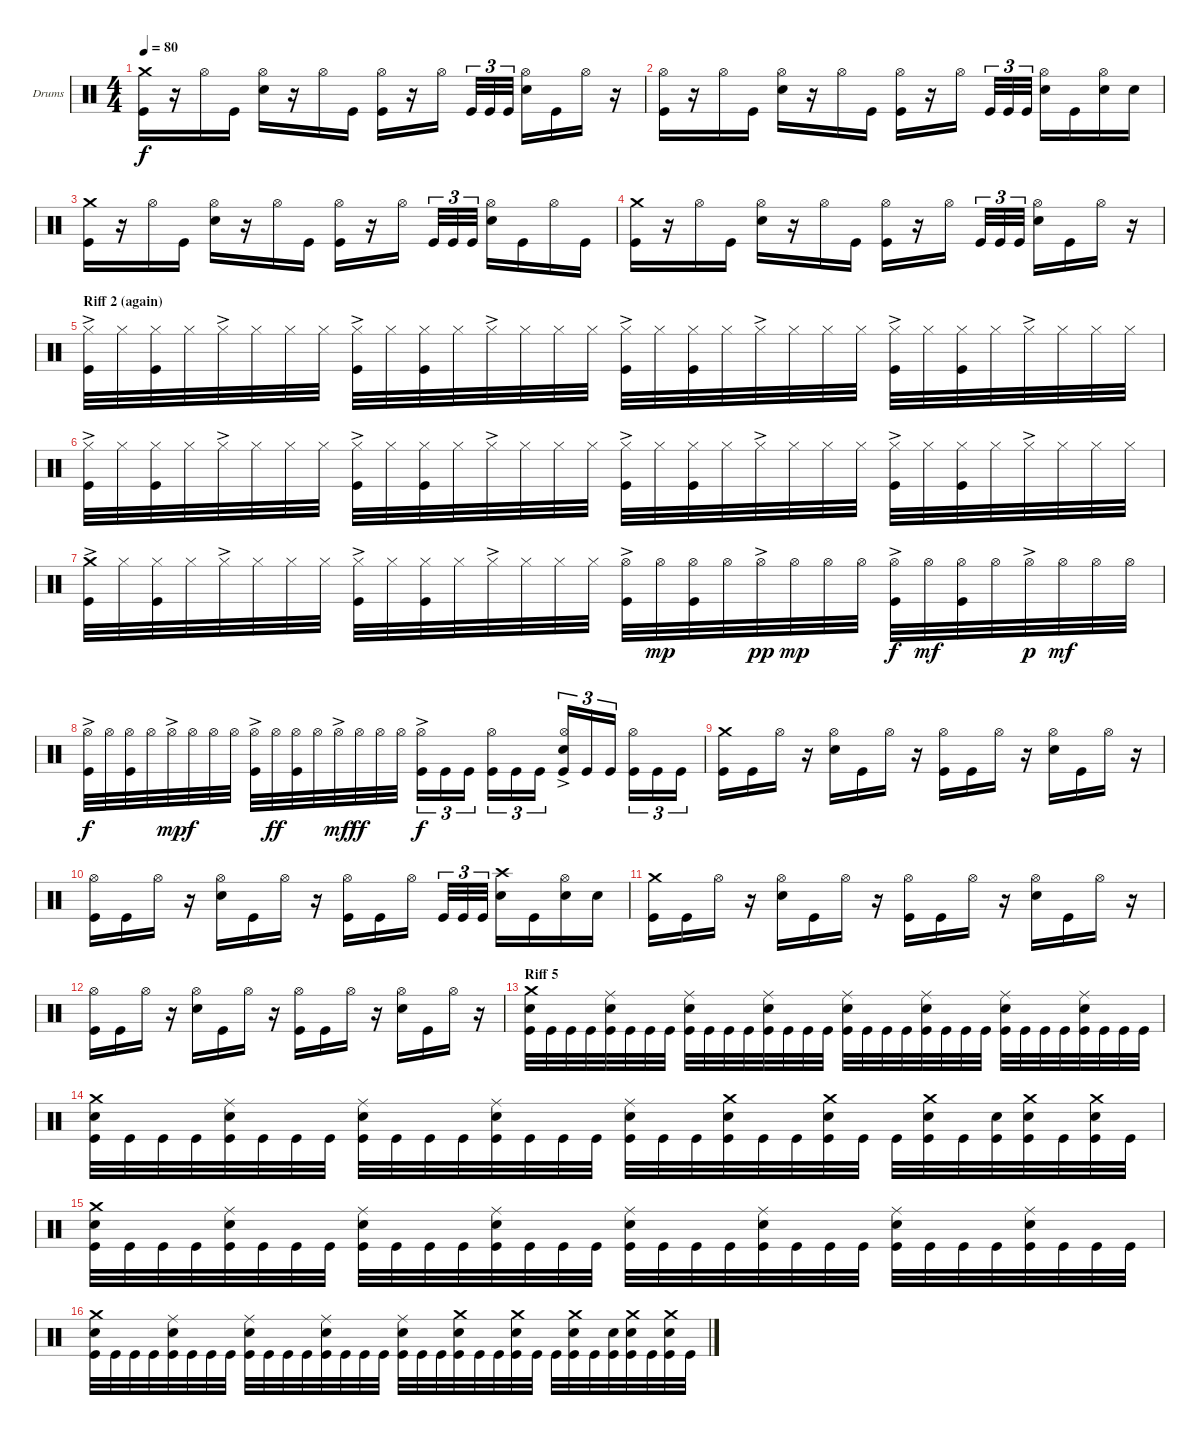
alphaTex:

\bracketExtendMode groupsimilarinstruments
\firstSystemTrackNameOrientation horizontal
\otherSystemsTrackNameOrientation horizontal
\track ("Drumkit" "Drums") {instrument percussion}
\staff {score}
\articulation defaults
\ts (4 4)
\tempo 80
\clef neutral
\ks c
("Crash medium (hit)" "Kick (hit)").16{dy f} r.16 "Hi-Hat (open)".16 "Kick (hit)".16 ("Hi-Hat (open)" "Snare (hit) 2").16 r.16 "Hi-Hat (open)".16 "Kick (hit)".16 ("Hi-Hat (open)" "Kick (hit)").16 r.16 "Hi-Hat (open)".16 "Kick (hit)".32{tu (3 2)} "Kick (hit)".32{tu (3 2)} "Kick (hit)".32{tu (3 2)} ("Hi-Hat (open)" "Snare (hit) 2").16 "Kick (hit)".16 "Hi-Hat (open)".16 r.16 |
("Hi-Hat (open)" "Kick (hit)").16 r.16 "Hi-Hat (open)".16 "Kick (hit)".16 ("Hi-Hat (open)" "Snare (hit) 2").16 r.16 "Hi-Hat (open)".16 "Kick (hit)".16 ("Hi-Hat (open)" "Kick (hit)").16 r.16 "Hi-Hat (open)".16 "Kick (hit)".32{tu (3 2)} "Kick (hit)".32{tu (3 2)} "Kick (hit)".32{tu (3 2)} ("Hi-Hat (open)" "Snare (hit) 2").16 "Kick (hit)".16 ("Hi-Hat (open)" "Snare (hit) 2").16 "Snare (hit) 2".16 |
("Crash medium (hit)" "Kick (hit)").16 r.16 "Hi-Hat (open)".16 "Kick (hit)".16 ("Hi-Hat (open)" "Snare (hit) 2").16 r.16 "Hi-Hat (open)".16 "Kick (hit)".16 ("Hi-Hat (open)" "Kick (hit)").16 r.16 "Hi-Hat (open)".16 "Kick (hit)".32{tu (3 2)} "Kick (hit)".32{tu (3 2)} "Kick (hit)".32{tu (3 2)} ("Hi-Hat (open)" "Snare (hit) 2").16 "Kick (hit)".16 "Hi-Hat (open)".16 "Kick (hit)".16 |
("Crash medium (hit)" "Kick (hit)").16 r.16 "Hi-Hat (open)".16 "Kick (hit)".16 ("Hi-Hat (open)" "Snare (hit) 2").16 r.16 "Hi-Hat (open)".16 "Kick (hit)".16 ("Hi-Hat (open)" "Kick (hit)").16 r.16 "Hi-Hat (open)".16 "Kick (hit)".32{tu (3 2)} "Kick (hit)".32{tu (3 2)} "Kick (hit)".32{tu (3 2)} ("Hi-Hat (open)" "Snare (hit) 2").16 "Kick (hit)".16 "Hi-Hat (open)".16 r.16 |
\section ("" "Riff 2 (again)")
("Hi-Hat (closed)"{ac} "Kick (hit)").32 "Hi-Hat (closed)".32 ("Hi-Hat (closed)" "Kick (hit)").32 "Hi-Hat (closed)".32 "Hi-Hat (closed)"{ac}.32 "Hi-Hat (closed)".32 "Hi-Hat (closed)".32 "Hi-Hat (closed)".32 ("Hi-Hat (closed)"{ac} "Kick (hit)").32 "Hi-Hat (closed)".32 ("Hi-Hat (closed)" "Kick (hit)").32 "Hi-Hat (closed)".32 "Hi-Hat (closed)"{ac}.32 "Hi-Hat (closed)".32 "Hi-Hat (closed)".32 "Hi-Hat (closed)".32 ("Hi-Hat (closed)"{ac} "Kick (hit)").32 "Hi-Hat (closed)".32 ("Hi-Hat (closed)" "Kick (hit)").32 "Hi-Hat (closed)".32 "Hi-Hat (closed)"{ac}.32 "Hi-Hat (closed)".32 "Hi-Hat (closed)".32 "Hi-Hat (closed)".32 ("Hi-Hat (closed)"{ac} "Kick (hit)").32 "Hi-Hat (closed)".32 ("Hi-Hat (closed)" "Kick (hit)").32 "Hi-Hat (closed)".32 "Hi-Hat (closed)"{ac}.32 "Hi-Hat (closed)".32 "Hi-Hat (closed)".32 "Hi-Hat (closed)".32 |
("Hi-Hat (closed)"{ac} "Kick (hit)").32 "Hi-Hat (closed)".32 ("Hi-Hat (closed)" "Kick (hit)").32 "Hi-Hat (closed)".32 "Hi-Hat (closed)"{ac}.32 "Hi-Hat (closed)".32 "Hi-Hat (closed)".32 "Hi-Hat (closed)".32 ("Hi-Hat (closed)"{ac} "Kick (hit)").32 "Hi-Hat (closed)".32 ("Hi-Hat (closed)" "Kick (hit)").32 "Hi-Hat (closed)".32 "Hi-Hat (closed)"{ac}.32 "Hi-Hat (closed)".32 "Hi-Hat (closed)".32 "Hi-Hat (closed)".32 ("Hi-Hat (closed)"{ac} "Kick (hit)").32 "Hi-Hat (closed)".32 ("Hi-Hat (closed)" "Kick (hit)").32 "Hi-Hat (closed)".32 "Hi-Hat (closed)"{ac}.32 "Hi-Hat (closed)".32 "Hi-Hat (closed)".32 "Hi-Hat (closed)".32 ("Hi-Hat (closed)"{ac} "Kick (hit)").32 "Hi-Hat (closed)".32 ("Hi-Hat (closed)" "Kick (hit)").32 "Hi-Hat (closed)".32 "Hi-Hat (closed)"{ac}.32 "Hi-Hat (closed)".32 "Hi-Hat (closed)".32 "Hi-Hat (closed)".32 |
("Crash medium (hit)"{ac} "Kick (hit)").32 "Hi-Hat (closed)".32 ("Hi-Hat (closed)" "Kick (hit)").32 "Hi-Hat (closed)".32 "Hi-Hat (closed)"{ac}.32 "Hi-Hat (closed)".32 "Hi-Hat (closed)".32 "Hi-Hat (closed)".32 ("Hi-Hat (closed)"{ac} "Kick (hit)").32 "Hi-Hat (closed)".32 ("Hi-Hat (closed)" "Kick (hit)").32 "Hi-Hat (closed)".32 "Hi-Hat (closed)"{ac}.32 "Hi-Hat (closed)".32 "Hi-Hat (closed)".32 "Hi-Hat (closed)".32 ("Hi-Hat (open)"{ac} "Kick (hit)").32 "Hi-Hat (open)".32{dy mp} ("Hi-Hat (open)" "Kick (hit)").32 "Hi-Hat (open)".32 "Hi-Hat (open)"{ac}.32{dy pp} "Hi-Hat (open)".32{dy mp} "Hi-Hat (open)".32 "Hi-Hat (open)".32 ("Hi-Hat (open)"{ac} "Kick (hit)").32{dy f} "Hi-Hat (open)".32{dy mf} ("Hi-Hat (open)" "Kick (hit)").32 "Hi-Hat (open)".32 "Hi-Hat (open)"{ac}.32{dy p} "Hi-Hat (open)".32{dy mf} "Hi-Hat (open)".32 "Hi-Hat (open)".32 |
("Hi-Hat (open)"{ac} "Kick (hit)").32{dy f} "Hi-Hat (open)".32 ("Hi-Hat (open)" "Kick (hit)").32 "Hi-Hat (open)".32 "Hi-Hat (open)"{ac}.32{dy mp} "Hi-Hat (open)".32{dy f} "Hi-Hat (open)".32 "Hi-Hat (open)".32 ("Hi-Hat (open)"{ac} "Kick (hit)").32 "Hi-Hat (open)".32{dy ff} ("Hi-Hat (open)" "Kick (hit)").32 "Hi-Hat (open)".32 "Hi-Hat (open)"{ac}.32{dy mf} "Hi-Hat (open)".32{dy ff} "Hi-Hat (open)".32 "Hi-Hat (open)".32 ("Hi-Hat (open)"{ac} "Kick (hit)").16{tu (3 2) dy f} "Kick (hit)".16{tu (3 2)} "Kick (hit)".16{tu (3 2)} ("Hi-Hat (open)" "Kick (hit)").16{tu (3 2)} "Kick (hit)".16{tu (3 2)} "Kick (hit)".16{tu (3 2)} ("Hi-Hat (open)"{ac} "Snare (hit) 2" "Kick (hit)").16{tu (3 2)} "Kick (hit)".16{tu (3 2)} "Kick (hit)".16{tu (3 2)} ("Hi-Hat (open)" "Kick (hit)").16{tu (3 2)} "Kick (hit)".16{tu (3 2)} "Kick (hit)".16{tu (3 2)} |
("Crash medium (hit)" "Kick (hit)").16 "Kick (hit)".16 "Hi-Hat (open)".16 r.16 ("Hi-Hat (open)" "Snare (hit) 2").16 "Kick (hit)".16 "Hi-Hat (open)".16 r.16 ("Hi-Hat (open)" "Kick (hit)").16 "Kick (hit)".16 "Hi-Hat (open)".16 r.16 ("Hi-Hat (open)" "Snare (hit) 2").16 "Kick (hit)".16 "Hi-Hat (open)".16 r.16 |
("Hi-Hat (open)" "Kick (hit)").16 "Kick (hit)".16 "Hi-Hat (open)".16 r.16 ("Hi-Hat (open)" "Snare (hit) 2").16 "Kick (hit)".16 "Hi-Hat (open)".16 r.16 ("Hi-Hat (open)" "Kick (hit)").16 "Kick (hit)".16 "Hi-Hat (open)".16 "Kick (hit)".32{tu (3 2)} "Kick (hit)".32{tu (3 2)} "Kick (hit)".32{tu (3 2)} ("Crash high (hit)" "Snare (hit) 2").16 "Kick (hit)".16 ("Hi-Hat (open)" "Snare (hit) 2").16 "Snare (hit) 2".16 |
("Crash medium (hit)" "Kick (hit)").16 "Kick (hit)".16 "Hi-Hat (open)".16 r.16 ("Hi-Hat (open)" "Snare (hit) 2").16 "Kick (hit)".16 "Hi-Hat (open)".16 r.16 ("Hi-Hat (open)" "Kick (hit)").16 "Kick (hit)".16 "Hi-Hat (open)".16 r.16 ("Hi-Hat (open)" "Snare (hit) 2").16 "Kick (hit)".16 "Hi-Hat (open)".16 r.16 |
("Hi-Hat (open)" "Kick (hit)").16 "Kick (hit)".16 "Hi-Hat (open)".16 r.16 ("Hi-Hat (open)" "Snare (hit) 2").16 "Kick (hit)".16 "Hi-Hat (open)".16 r.16 ("Hi-Hat (open)" "Kick (hit)").16 "Kick (hit)".16 "Hi-Hat (open)".16 r.16 ("Hi-Hat (open)" "Snare (hit) 2").16 "Kick (hit)".16 "Hi-Hat (open)".16 r.16 |
\section ("" "Riff 5")
("Crash medium (hit)" "Snare (hit) 2" "Kick (hit)").32 "Kick (hit)".32 "Kick (hit)".32 "Kick (hit)".32 ("Ride (middle)" "Snare (hit) 2" "Kick (hit)").32 "Kick (hit)".32 "Kick (hit)".32 "Kick (hit)".32 ("Ride (middle)" "Snare (hit) 2" "Kick (hit)").32 "Kick (hit)".32 "Kick (hit)".32 "Kick (hit)".32 ("Ride (middle)" "Snare (hit) 2" "Kick (hit)").32 "Kick (hit)".32 "Kick (hit)".32 "Kick (hit)".32 ("Ride (middle)" "Snare (hit) 2" "Kick (hit)").32 "Kick (hit)".32 "Kick (hit)".32 "Kick (hit)".32 ("Ride (middle)" "Snare (hit) 2" "Kick (hit)").32 "Kick (hit)".32 "Kick (hit)".32 "Kick (hit)".32 ("Ride (middle)" "Snare (hit) 2" "Kick (hit)").32 "Kick (hit)".32 "Kick (hit)".32 "Kick (hit)".32 ("Ride (middle)" "Snare (hit) 2" "Kick (hit)").32 "Kick (hit)".32 "Kick (hit)".32 "Kick (hit)".32 |
("Crash medium (hit)" "Snare (hit) 2" "Kick (hit)").32 "Kick (hit)".32 "Kick (hit)".32 "Kick (hit)".32 ("Ride (middle)" "Snare (hit) 2" "Kick (hit)").32 "Kick (hit)".32 "Kick (hit)".32 "Kick (hit)".32 ("Ride (middle)" "Snare (hit) 2" "Kick (hit)").32 "Kick (hit)".32 "Kick (hit)".32 "Kick (hit)".32 ("Ride (middle)" "Snare (hit) 2" "Kick (hit)").32 "Kick (hit)".32 "Kick (hit)".32 "Kick (hit)".32 ("Ride (middle)" "Snare (hit) 2" "Kick (hit)").32 "Kick (hit)".32 "Kick (hit)".32 ("Crash medium (hit)" "Snare (hit) 2" "Kick (hit)").32 "Kick (hit)".32 "Kick (hit)".32 ("Crash medium (hit)" "Snare (hit) 2" "Kick (hit)").32 "Kick (hit)".32 "Kick (hit)".32 ("Crash medium (hit)" "Snare (hit) 2" "Kick (hit)").32 "Kick (hit)".32 ("Snare (hit) 2" "Kick (hit)").32 ("Crash medium (hit)" "Snare (hit) 2" "Kick (hit)").32 "Kick (hit)".32 ("Crash medium (hit)" "Snare (hit) 2" "Kick (hit)").32 "Kick (hit)".32 |
("Crash medium (hit)" "Snare (hit) 2" "Kick (hit)").32 "Kick (hit)".32 "Kick (hit)".32 "Kick (hit)".32 ("Ride (middle)" "Snare (hit) 2" "Kick (hit)").32 "Kick (hit)".32 "Kick (hit)".32 "Kick (hit)".32 ("Ride (middle)" "Snare (hit) 2" "Kick (hit)").32 "Kick (hit)".32 "Kick (hit)".32 "Kick (hit)".32 ("Ride (middle)" "Snare (hit) 2" "Kick (hit)").32 "Kick (hit)".32 "Kick (hit)".32 "Kick (hit)".32 ("Ride (middle)" "Snare (hit) 2" "Kick (hit)").32 "Kick (hit)".32 "Kick (hit)".32 "Kick (hit)".32 ("Ride (middle)" "Snare (hit) 2" "Kick (hit)").32 "Kick (hit)".32 "Kick (hit)".32 "Kick (hit)".32 ("Ride (middle)" "Snare (hit) 2" "Kick (hit)").32 "Kick (hit)".32 "Kick (hit)".32 "Kick (hit)".32 ("Ride (middle)" "Snare (hit) 2" "Kick (hit)").32 "Kick (hit)".32 "Kick (hit)".32 "Kick (hit)".32 |
("Crash medium (hit)" "Snare (hit) 2" "Kick (hit)").32 "Kick (hit)".32 "Kick (hit)".32 "Kick (hit)".32 ("Ride (middle)" "Snare (hit) 2" "Kick (hit)").32 "Kick (hit)".32 "Kick (hit)".32 "Kick (hit)".32 ("Ride (middle)" "Snare (hit) 2" "Kick (hit)").32 "Kick (hit)".32 "Kick (hit)".32 "Kick (hit)".32 ("Ride (middle)" "Snare (hit) 2" "Kick (hit)").32 "Kick (hit)".32 "Kick (hit)".32 "Kick (hit)".32 ("Ride (middle)" "Snare (hit) 2" "Kick (hit)").32 "Kick (hit)".32 "Kick (hit)".32 ("Crash medium (hit)" "Snare (hit) 2" "Kick (hit)").32 "Kick (hit)".32 "Kick (hit)".32 ("Crash medium (hit)" "Snare (hit) 2" "Kick (hit)").32 "Kick (hit)".32 "Kick (hit)".32 ("Crash medium (hit)" "Snare (hit) 2" "Kick (hit)").32 "Kick (hit)".32 ("Snare (hit) 2" "Kick (hit)").32 ("Crash medium (hit)" "Snare (hit) 2" "Kick (hit)").32 "Kick (hit)".32 ("Crash medium (hit)" "Snare (hit) 2" "Kick (hit)").32 "Kick (hit)".32
